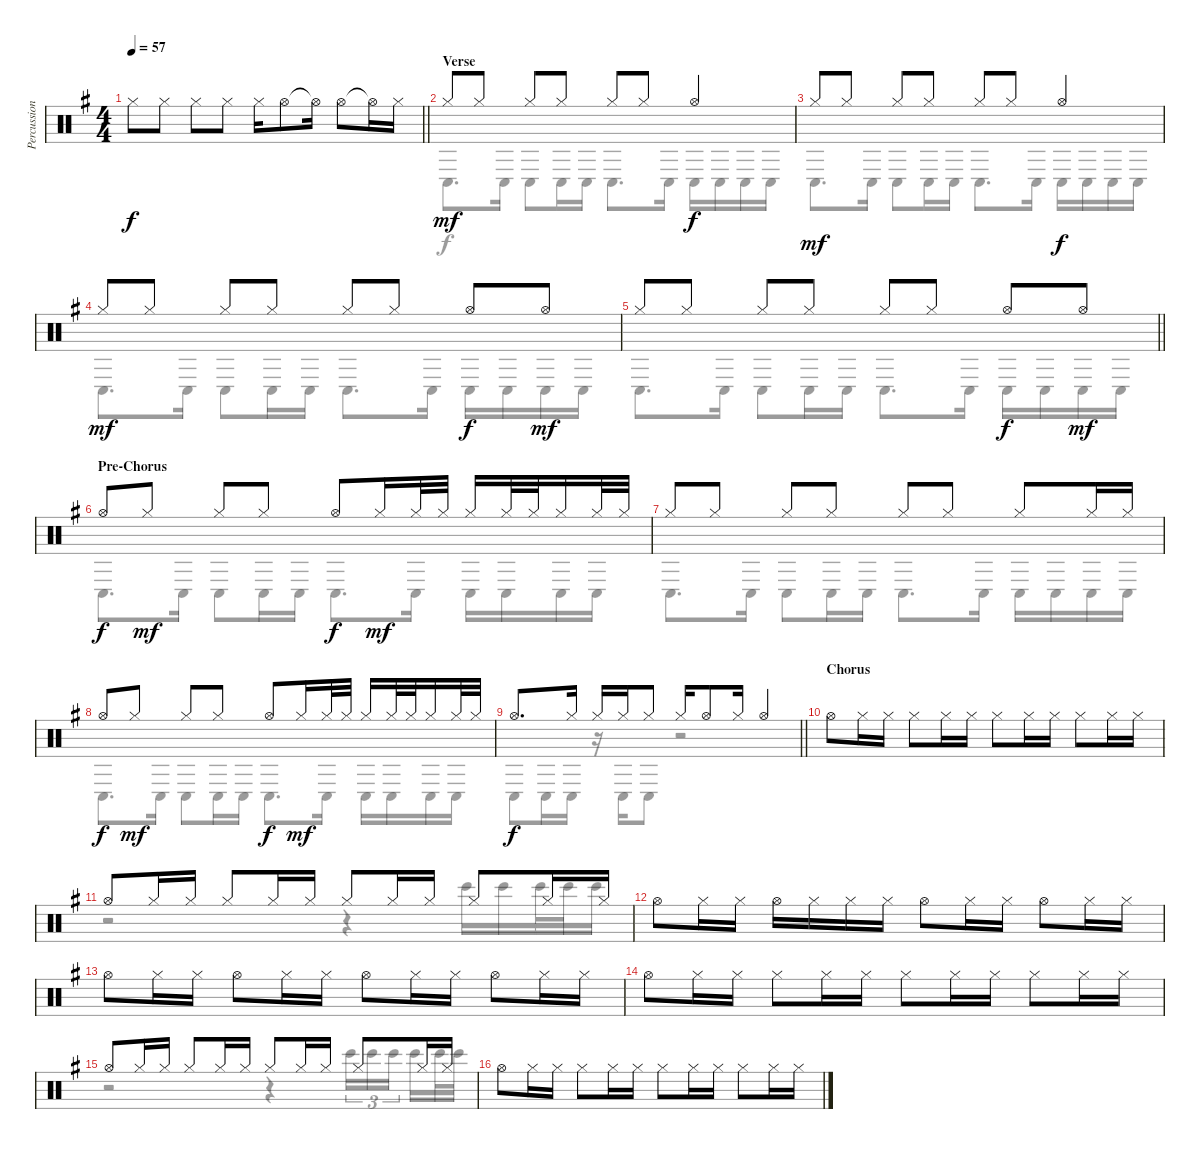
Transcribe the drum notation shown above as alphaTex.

\track ("Percussion 1" "Percussion") {instrument percussion}
\staff {score}
\articulation defaults
\voice
\ts (4 4)
\tempo 57
\clef neutral
\barLineRight lightlight
\ks g "Hi-Hat (closed)".8{dy f} "Hi-Hat (closed)".8 "Hi-Hat (closed)".8 "Hi-Hat (closed)".8 "Hi-Hat (closed)".16 "Hi-Hat (open)".8 "Hi-Hat (open)"{t}.16 "Hi-Hat (open)".8 "Hi-Hat (open)"{t}.16 "Hi-Hat (closed)".16
|
\section ("" "Verse")
"Hi-Hat (closed)".8{dy mf} "Hi-Hat (closed)".8 "Hi-Hat (closed)".8 "Hi-Hat (closed)".8 "Hi-Hat (closed)".8 "Hi-Hat (closed)".8 "Hi-Hat (open)".4{dy f} |
"Hi-Hat (closed)".8{dy mf} "Hi-Hat (closed)".8 "Hi-Hat (closed)".8 "Hi-Hat (closed)".8 "Hi-Hat (closed)".8 "Hi-Hat (closed)".8 "Hi-Hat (open)".4{dy f} |
"Hi-Hat (closed)".8{dy mf} "Hi-Hat (closed)".8 "Hi-Hat (closed)".8 "Hi-Hat (closed)".8 "Hi-Hat (closed)".8 "Hi-Hat (closed)".8 "Hi-Hat (open)".8{dy f} "Hi-Hat (open)".8{dy mf} |
\barLineRight lightlight "Hi-Hat (closed)".8 "Hi-Hat (closed)".8 "Hi-Hat (closed)".8 "Hi-Hat (closed)".8 "Hi-Hat (closed)".8 "Hi-Hat (closed)".8 "Hi-Hat (open)".8{dy f} "Hi-Hat (open)".8{dy mf}
|
\section ("" "Pre-Chorus")
"Hi-Hat (open)".8{dy f} "Hi-Hat (closed)".8{dy mf} "Hi-Hat (closed)".8 "Hi-Hat (closed)".8 "Hi-Hat (open)".8{dy f} "Hi-Hat (closed)".16{dy mf} "Hi-Hat (closed)".32 "Hi-Hat (closed)".32 "Hi-Hat (closed)".16 "Hi-Hat (closed)".32 "Hi-Hat (closed)".32 "Hi-Hat (closed)".16 "Hi-Hat (closed)".32 "Hi-Hat (closed)".32 |
"Hi-Hat (closed)".8 "Hi-Hat (closed)".8 "Hi-Hat (closed)".8 "Hi-Hat (closed)".8 "Hi-Hat (closed)".8 "Hi-Hat (closed)".8 "Hi-Hat (closed)".8 "Hi-Hat (closed)".16 "Hi-Hat (closed)".16 |
"Hi-Hat (open)".8{dy f} "Hi-Hat (closed)".8{dy mf} "Hi-Hat (closed)".8 "Hi-Hat (closed)".8 "Hi-Hat (open)".8{dy f} "Hi-Hat (closed)".16{dy mf} "Hi-Hat (closed)".32 "Hi-Hat (closed)".32 "Hi-Hat (closed)".16 "Hi-Hat (closed)".32 "Hi-Hat (closed)".32 "Hi-Hat (closed)".16 "Hi-Hat (closed)".32 "Hi-Hat (closed)".32 |
\barLineRight lightlight "Hi-Hat (open)".8{d dy f} "Hi-Hat (closed)".16 "Hi-Hat (closed)".16 "Hi-Hat (closed)".16 "Hi-Hat (closed)".8 "Hi-Hat (closed)".16 "Hi-Hat (open)".8 "Hi-Hat (closed)".16 "Hi-Hat (open)".4
|
\section ("" "Chorus")
"Hi-Hat (open)".8 "Hi-Hat (closed)".16 "Hi-Hat (closed)".16 "Hi-Hat (closed)".8 "Hi-Hat (closed)".16 "Hi-Hat (closed)".16 "Hi-Hat (closed)".8 "Hi-Hat (closed)".16 "Hi-Hat (closed)".16 "Hi-Hat (closed)".8 "Hi-Hat (closed)".16 "Hi-Hat (closed)".16 |
"Hi-Hat (open)".8 "Hi-Hat (closed)".16 "Hi-Hat (closed)".16 "Hi-Hat (closed)".8 "Hi-Hat (closed)".16 "Hi-Hat (closed)".16 "Hi-Hat (closed)".8 "Hi-Hat (closed)".16 "Hi-Hat (closed)".16 "Hi-Hat (closed)".8 "Hi-Hat (closed)".16 "Hi-Hat (closed)".16 |
"Hi-Hat (open)".8 "Hi-Hat (closed)".16 "Hi-Hat (closed)".16 "Hi-Hat (open)".16 "Hi-Hat (closed)".16 "Hi-Hat (closed)".16 "Hi-Hat (closed)".16 "Hi-Hat (open)".8 "Hi-Hat (closed)".16 "Hi-Hat (closed)".16 "Hi-Hat (open)".8 "Hi-Hat (closed)".16 "Hi-Hat (closed)".16 |
"Hi-Hat (open)".8 "Hi-Hat (closed)".16 "Hi-Hat (closed)".16 "Hi-Hat (open)".8 "Hi-Hat (closed)".16 "Hi-Hat (closed)".16 "Hi-Hat (open)".8 "Hi-Hat (closed)".16 "Hi-Hat (closed)".16 "Hi-Hat (open)".8 "Hi-Hat (closed)".16 "Hi-Hat (closed)".16 |
"Hi-Hat (open)".8 "Hi-Hat (closed)".16 "Hi-Hat (closed)".16 "Hi-Hat (closed)".8 "Hi-Hat (closed)".16 "Hi-Hat (closed)".16 "Hi-Hat (closed)".8 "Hi-Hat (closed)".16 "Hi-Hat (closed)".16 "Hi-Hat (closed)".8 "Hi-Hat (closed)".16 "Hi-Hat (closed)".16 |
"Hi-Hat (open)".8 "Hi-Hat (closed)".16 "Hi-Hat (closed)".16 "Hi-Hat (closed)".8 "Hi-Hat (closed)".16 "Hi-Hat (closed)".16 "Hi-Hat (closed)".8 "Hi-Hat (closed)".16 "Hi-Hat (closed)".16 "Hi-Hat (closed)".8 "Hi-Hat (closed)".16 "Hi-Hat (closed)".16 |
"Hi-Hat (open)".8 "Hi-Hat (closed)".16 "Hi-Hat (closed)".16 "Hi-Hat (closed)".8 "Hi-Hat (closed)".16 "Hi-Hat (closed)".16 "Hi-Hat (closed)".8 "Hi-Hat (closed)".16 "Hi-Hat (closed)".16 "Hi-Hat (closed)".8 "Hi-Hat (closed)".16 "Hi-Hat (closed)".16
\voice
\clef neutral
\ottava regular
\simile none
\barLineRight lightlight
\ks g
|
"Conga low (hit)".8{d} "Conga low (hit)".16 "Conga low (hit)".8 "Conga low (hit)".16 "Conga low (hit)".16 "Conga low (hit)".8{d} "Conga low (hit)".16 "Conga low (hit)".16 "Conga low (hit)".16 "Conga low (hit)".16 "Conga low (hit)".16 |
"Conga low (hit)".8{d} "Conga low (hit)".16 "Conga low (hit)".8 "Conga low (hit)".16 "Conga low (hit)".16 "Conga low (hit)".8{d} "Conga low (hit)".16 "Conga low (hit)".16 "Conga low (hit)".16 "Conga low (hit)".16 "Conga low (hit)".16 |
"Conga low (hit)".8{d} "Conga low (hit)".16 "Conga low (hit)".8 "Conga low (hit)".16 "Conga low (hit)".16 "Conga low (hit)".8{d} "Conga low (hit)".16 "Conga low (hit)".16 "Conga low (hit)".16 "Conga low (hit)".16 "Conga low (hit)".16 |
\barLineRight lightlight "Conga low (hit)".8{d} "Conga low (hit)".16 "Conga low (hit)".8 "Conga low (hit)".16 "Conga low (hit)".16 "Conga low (hit)".8{d} "Conga low (hit)".16 "Conga low (hit)".16 "Conga low (hit)".16 "Conga low (hit)".16 "Conga low (hit)".16
|
"Conga low (hit)".8{d} "Conga low (hit)".16 "Conga low (hit)".8 "Conga low (hit)".16 "Conga low (hit)".16 "Conga low (hit)".8{d} "Conga low (hit)".16 "Conga low (hit)".16 "Conga low (hit)".16 "Conga low (hit)".16 "Conga low (hit)".16 |
"Conga low (hit)".8{d} "Conga low (hit)".16 "Conga low (hit)".8 "Conga low (hit)".16 "Conga low (hit)".16 "Conga low (hit)".8{d} "Conga low (hit)".16 "Conga low (hit)".16 "Conga low (hit)".16 "Conga low (hit)".16 "Conga low (hit)".16 |
"Conga low (hit)".8{d} "Conga low (hit)".16 "Conga low (hit)".8 "Conga low (hit)".16 "Conga low (hit)".16 "Conga low (hit)".8{d} "Conga low (hit)".16 "Conga low (hit)".16 "Conga low (hit)".16 "Conga low (hit)".16 "Conga low (hit)".16 |
\barLineRight lightlight "Conga low (hit)".8 "Conga low (hit)".16 "Conga low (hit)".16
r.16 "Conga low (hit)".16 "Conga low (hit)".8 r.2 |
|
r.2 r.4 "Bongo High (hit)".16 "Bongo High (hit)".16 "Bongo High (hit)".32 "Bongo High (hit)".32 "Bongo High (hit)".16 |
|
|
|
r.2 r.4 "Bongo High (hit)".16{tu (3 2)} "Bongo High (hit)".16{tu (3 2)} "Bongo High (hit)".16{tu (3 2) beam splitsecondary} "Bongo High (hit)".16 "Bongo High (hit)".32 "Bongo High (hit)".32 |
